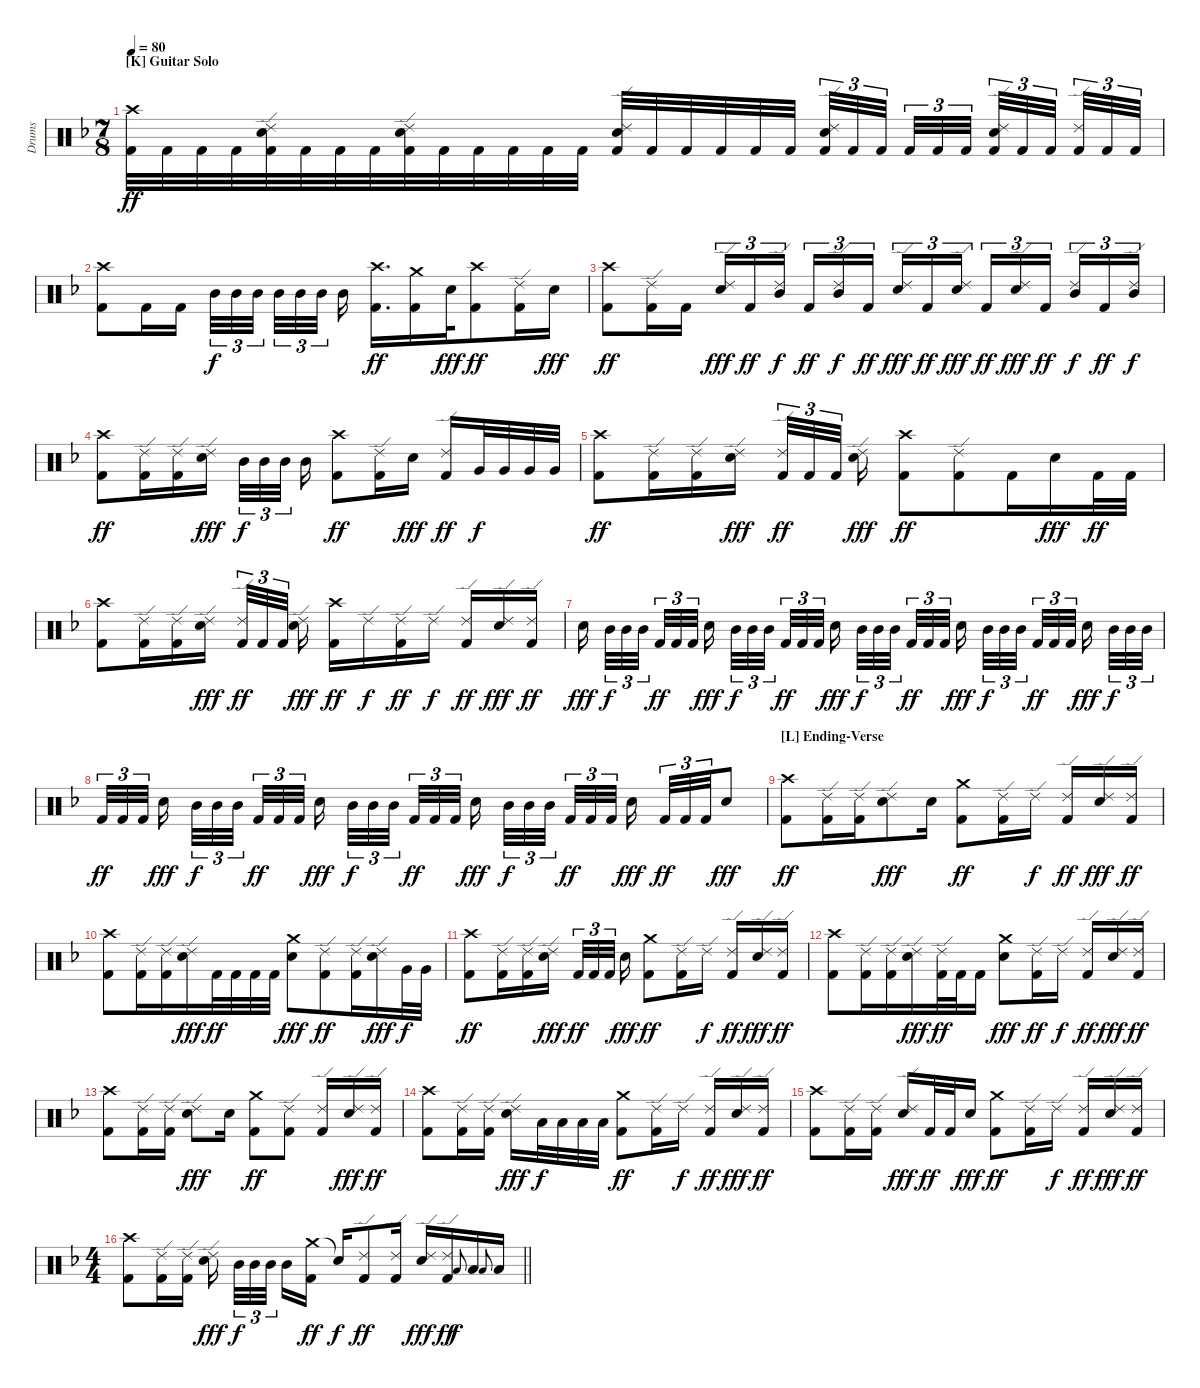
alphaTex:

\track ("Drums" "Drums") {instrument percussion}
\staff {score}
\articulation defaults
\ts (7 8)
\section ("" "[K] Guitar Solo")
\tempo 80
\clef neutral
\ks dminor
("Crash high (hit)" "Kick (hit) 2").32{dy ff} "Kick (hit) 2".32 "Kick (hit) 2".32 "Kick (hit) 2".32{beam merge} ("Ride (edge) 2" "Electric Snare (hit)" "Kick (hit) 2").32 "Kick (hit) 2".32 "Kick (hit) 2".32 "Kick (hit) 2".32 ("Ride (edge) 2" "Electric Snare (hit)" "Kick (hit) 2").32 "Kick (hit) 2".32 "Kick (hit) 2".32 "Kick (hit) 2".32{beam merge} "Kick (hit) 2".32 "Kick (hit) 2".32{beam split} ("Ride (edge) 2" "Electric Snare (hit)" "Kick (hit) 2").32 "Kick (hit) 2".32{beam merge} "Kick (hit) 2".32 "Kick (hit) 2".32 "Kick (hit) 2".32 "Kick (hit) 2".32 ("Ride (edge) 2" "Electric Snare (hit)" "Kick (hit) 2").32{tu (3 2)} "Kick (hit) 2".32{tu (3 2)} "Kick (hit) 2".32{tu (3 2) beam splitsecondary} "Kick (hit) 2".32{tu (3 2)} "Kick (hit) 2".32{tu (3 2)} "Kick (hit) 2".32{tu (3 2)} ("Ride (edge) 2" "Electric Snare (hit)" "Kick (hit) 2").32{tu (3 2)} "Kick (hit) 2".32{tu (3 2)} "Kick (hit) 2".32{tu (3 2) beam splitsecondary} ("Ride (edge) 2" "Kick (hit) 2").32{tu (3 2)} "Kick (hit) 2".32{tu (3 2)} "Kick (hit) 2".32{tu (3 2)} |
("Crash high (hit)" "Kick (hit) 2").8{beam merge} "Kick (hit) 2".16 "Kick (hit) 2".16 "Mid Tom (hit)".32{tu (3 2) dy f} "Mid Tom (hit)".32{tu (3 2)} "Mid Tom (hit)".32{tu (3 2) beam splitsecondary} "Mid Tom (hit)".32{tu (3 2)} "Mid Tom (hit)".32{tu (3 2)} "Mid Tom (hit)".32{tu (3 2) beam splitsecondary} "Mid Tom (hit)".16{beam split} ("Crash high (hit)" "Kick (hit) 2").16{d dy ff beam merge} ("Crash medium (hit)" "Kick (hit) 2").16 "Electric Snare (hit)".32{dy fff beam merge} ("Crash high (hit)" "Kick (hit) 2").8{dy ff beam merge} ("Ride (edge) 2" "Kick (hit) 2").16 "Electric Snare (hit)".16{dy fff} |
("Crash high (hit)" "Kick (hit) 2").8{dy ff beam merge} ("Ride (edge) 2" "Kick (hit) 2").16 "Kick (hit) 2".16 ("Ride (edge) 2" "Electric Snare (hit)").16{tu (3 2) dy fff} "Kick (hit) 2".16{tu (3 2) dy ff} ("Ride (edge) 2" "Mid Tom (hit)").16{tu (3 2) dy f} "Kick (hit) 2".16{tu (3 2) dy ff} ("Ride (edge) 2" "Mid Tom (hit)").16{tu (3 2) dy f} "Kick (hit) 2".16{tu (3 2) dy ff} ("Ride (edge) 2" "Electric Snare (hit)").16{tu (3 2) dy fff} "Kick (hit) 2".16{tu (3 2) dy ff} ("Ride (edge) 2" "Electric Snare (hit)").16{tu (3 2) dy fff} "Kick (hit) 2".16{tu (3 2) dy ff} ("Ride (edge) 2" "Electric Snare (hit)").16{tu (3 2) dy fff} "Kick (hit) 2".16{tu (3 2) dy ff} ("Ride (edge) 2" "Mid Tom (hit)").16{tu (3 2) dy f} "Kick (hit) 2".16{tu (3 2) dy ff} ("Ride (edge) 2" "Mid Tom (hit)").16{tu (3 2) dy f} |
("Crash high (hit)" "Kick (hit) 2").8{dy ff beam merge} ("Ride (edge) 2" "Kick (hit) 2").16 ("Ride (edge) 2" "Kick (hit) 2").16 ("Ride (edge) 2" "Electric Snare (hit)").16{dy fff beam splitsecondary} "Mid Tom (hit)".32{tu (3 2) dy f} "Mid Tom (hit)".32{tu (3 2)} "Mid Tom (hit)".32{tu (3 2) beam splitsecondary} "Mid Tom (hit)".16{beam split} ("Crash high (hit)" "Kick (hit) 2").8{dy ff beam merge} ("Ride (edge) 2" "Kick (hit) 2").16{beam merge} "Electric Snare (hit)".16{dy fff beam split} ("Ride (edge) 2" "Kick (hit) 2").16{dy ff beam merge} "Very Low Tom (hit)".32{dy f} "Very Low Tom (hit)".32 "Very Low Tom (hit)".32 "Very Low Tom (hit)".32 |
("Crash high (hit)" "Kick (hit) 2").8{dy ff beam merge} ("Ride (edge) 2" "Kick (hit) 2").16 ("Ride (edge) 2" "Kick (hit) 2").16 ("Ride (edge) 2" "Electric Snare (hit)").16{dy fff beam splitsecondary} ("Ride (edge) 2" "Kick (hit) 2").32{tu (3 2) dy ff} "Kick (hit) 2".32{tu (3 2)} "Kick (hit) 2".32{tu (3 2) beam splitsecondary} ("Ride (edge) 2" "Electric Snare (hit)").16{dy fff beam split} ("Crash high (hit)" "Kick (hit) 2").8{dy ff beam merge} ("Ride (edge) 2" "Kick (hit) 2").8 "Kick (hit) 2".16{beam merge} "Electric Snare (hit)".16{dy fff} "Kick (hit) 2".32{dy ff} "Kick (hit) 2".32 |
("Crash high (hit)" "Kick (hit) 2").8{beam merge} ("Ride (edge) 2" "Kick (hit) 2").16 ("Ride (edge) 2" "Kick (hit) 2").16 ("Ride (edge) 2" "Electric Snare (hit)").16{dy fff beam splitsecondary} ("Ride (edge) 2" "Kick (hit) 2").32{tu (3 2) dy ff} "Kick (hit) 2".32{tu (3 2)} "Kick (hit) 2".32{tu (3 2) beam splitsecondary} ("Ride (edge) 2" "Electric Snare (hit)").16{dy fff beam split} ("Crash high (hit)" "Kick (hit) 2").16{dy ff beam merge} "Ride (edge) 2".16{dy f} ("Ride (edge) 2" "Kick (hit) 2").16{dy ff beam merge} "Ride (edge) 2".16{dy f beam split} ("Ride (edge) 2" "Kick (hit) 2").16{dy ff beam merge} ("Ride (edge) 2" "Electric Snare (hit)").16{dy fff} ("Ride (edge) 2" "Kick (hit) 2").16{dy ff} |
"Electric Snare (hit)".16{dy fff beam splitsecondary} "Mid Tom (hit)".32{tu (3 2) dy f} "Mid Tom (hit)".32{tu (3 2)} "Mid Tom (hit)".32{tu (3 2) beam splitsecondary} "Kick (hit) 2".32{tu (3 2) dy ff} "Kick (hit) 2".32{tu (3 2)} "Kick (hit) 2".32{tu (3 2) beam split} "Electric Snare (hit)".16{dy fff beam splitsecondary} "Mid Tom (hit)".32{tu (3 2) dy f} "Mid Tom (hit)".32{tu (3 2)} "Mid Tom (hit)".32{tu (3 2) beam splitsecondary} "Kick (hit) 2".32{tu (3 2) dy ff} "Kick (hit) 2".32{tu (3 2)} "Kick (hit) 2".32{tu (3 2)} "Electric Snare (hit)".16{dy fff beam splitsecondary} "Mid Tom (hit)".32{tu (3 2) dy f} "Mid Tom (hit)".32{tu (3 2)} "Mid Tom (hit)".32{tu (3 2) beam splitsecondary} "Kick (hit) 2".32{tu (3 2) dy ff} "Kick (hit) 2".32{tu (3 2)} "Kick (hit) 2".32{tu (3 2) beam split} "Electric Snare (hit)".16{dy fff beam splitsecondary} "Mid Tom (hit)".32{tu (3 2) dy f} "Mid Tom (hit)".32{tu (3 2)} "Mid Tom (hit)".32{tu (3 2) beam splitsecondary} "Kick (hit) 2".32{tu (3 2) dy ff} "Kick (hit) 2".32{tu (3 2)} "Kick (hit) 2".32{tu (3 2)} "Electric Snare (hit)".16{dy fff beam splitsecondary} "Mid Tom (hit)".32{tu (3 2) dy f} "Mid Tom (hit)".32{tu (3 2)} "Mid Tom (hit)".32{tu (3 2)} |
"Kick (hit) 2".32{tu (3 2) dy ff} "Kick (hit) 2".32{tu (3 2)} "Kick (hit) 2".32{tu (3 2) beam split} "Electric Snare (hit)".16{dy fff beam splitsecondary} "Mid Tom (hit)".32{tu (3 2) dy f} "Mid Tom (hit)".32{tu (3 2)} "Mid Tom (hit)".32{tu (3 2) beam splitsecondary} "Kick (hit) 2".32{tu (3 2) dy ff} "Kick (hit) 2".32{tu (3 2)} "Kick (hit) 2".32{tu (3 2)} "Electric Snare (hit)".16{dy fff beam splitsecondary} "Mid Tom (hit)".32{tu (3 2) dy f} "Mid Tom (hit)".32{tu (3 2)} "Mid Tom (hit)".32{tu (3 2) beam splitsecondary} "Kick (hit) 2".32{tu (3 2) dy ff} "Kick (hit) 2".32{tu (3 2)} "Kick (hit) 2".32{tu (3 2) beam split} "Electric Snare (hit)".16{dy fff beam splitsecondary} "Mid Tom (hit)".32{tu (3 2) dy f} "Mid Tom (hit)".32{tu (3 2)} "Mid Tom (hit)".32{tu (3 2) beam splitsecondary} "Kick (hit) 2".32{tu (3 2) dy ff} "Kick (hit) 2".32{tu (3 2)} "Kick (hit) 2".32{tu (3 2)} "Electric Snare (hit)".16{dy fff beam splitsecondary} "Kick (hit) 2".32{tu (3 2) dy ff} "Kick (hit) 2".32{tu (3 2)} "Kick (hit) 2".32{tu (3 2) beam merge} "Electric Snare (hit)".8{dy fff} |
\section ("" "[L] Ending-Verse")
("Crash high (hit)" "Kick (hit) 2").8{dy ff beam merge} ("Ride (edge) 2" "Kick (hit) 2").16 ("Ride (edge) 2" "Kick (hit) 2").16 ("Ride (edge) 2" "Electric Snare (hit)").8{dy fff beam merge} "Electric Snare (hit)".16{beam split} ("Crash medium (hit)" "Kick (hit) 2").8{dy ff beam merge} ("Ride (edge) 2" "Kick (hit) 2").16{beam merge} "Ride (edge) 2".16{dy f beam split} ("Ride (edge) 2" "Kick (hit) 2").16{dy ff beam merge} ("Ride (edge) 2" "Electric Snare (hit)").16{dy fff} ("Ride (edge) 2" "Kick (hit) 2").16{dy ff} |
("Crash high (hit)" "Kick (hit) 2").8{beam merge} ("Ride (edge) 2" "Kick (hit) 2").16 ("Ride (edge) 2" "Kick (hit) 2").16 ("Ride (edge) 2" "Electric Snare (hit)").16{dy fff} "Kick (hit) 2".32{dy ff} "Kick (hit) 2".32{beam merge} "Kick (hit) 2".32 "Kick (hit) 2".32{beam split} ("Crash medium (hit)" "Electric Snare (hit)").8{dy fff beam merge} ("Ride (edge) 2" "Kick (hit) 2").8{dy ff} ("Ride (edge) 2" "Kick (hit) 2").16{beam merge} ("Ride (edge) 2" "Electric Snare (hit)").16{dy fff} "Very Low Tom (hit)".32{dy f} "Very Low Tom (hit)".32 |
("Crash high (hit)" "Kick (hit) 2").8{dy ff beam merge} ("Ride (edge) 2" "Kick (hit) 2").16 ("Ride (edge) 2" "Kick (hit) 2").16 ("Ride (edge) 2" "Electric Snare (hit)").16{dy fff beam splitsecondary} "Kick (hit) 2".32{tu (3 2) dy ff} "Kick (hit) 2".32{tu (3 2)} "Kick (hit) 2".32{tu (3 2) beam splitsecondary} "Electric Snare (hit)".16{dy fff beam split} ("Crash medium (hit)" "Kick (hit) 2").8{dy ff beam merge} ("Ride (edge) 2" "Kick (hit) 2").16{beam merge} "Ride (edge) 2".16{dy f beam split} ("Ride (edge) 2" "Kick (hit) 2").16{dy ff beam merge} ("Ride (edge) 2" "Electric Snare (hit)").16{dy fff} ("Ride (edge) 2" "Kick (hit) 2").16{dy ff} |
("Crash high (hit)" "Kick (hit) 2").8{beam merge} ("Ride (edge) 2" "Kick (hit) 2").16 ("Ride (edge) 2" "Kick (hit) 2").16 ("Ride (edge) 2" "Electric Snare (hit)").16{dy fff} ("Ride (edge) 2" "Kick (hit) 2").32{dy ff} "Kick (hit) 2".32{beam merge} "Kick (hit) 2".16{beam split} ("Crash medium (hit)" "Electric Snare (hit)").8{dy fff beam merge} ("Ride (edge) 2" "Kick (hit) 2").16{dy ff beam merge} "Ride (edge) 2".16{dy f beam split} ("Ride (edge) 2" "Kick (hit) 2").16{dy ff beam merge} ("Ride (edge) 2" "Electric Snare (hit)").16{dy fff} ("Ride (edge) 2" "Kick (hit) 2").16{dy ff} |
("Crash high (hit)" "Kick (hit) 2").8{beam merge} ("Ride (edge) 2" "Kick (hit) 2").16 ("Ride (edge) 2" "Kick (hit) 2").16{beam split} ("Ride (edge) 2" "Electric Snare (hit)").8{dy fff beam merge} "Electric Snare (hit)".16{beam split} ("Crash medium (hit)" "Kick (hit) 2").8{dy ff beam merge} ("Ride (edge) 2" "Kick (hit) 2").8{beam split} ("Ride (edge) 2" "Kick (hit) 2").16{beam merge} ("Ride (edge) 2" "Electric Snare (hit)").16{dy fff} ("Ride (edge) 2" "Kick (hit) 2").16{dy ff} |
("Crash high (hit)" "Kick (hit) 2").8{beam merge} ("Ride (edge) 2" "Kick (hit) 2").16 ("Ride (edge) 2" "Kick (hit) 2").16{beam split} ("Ride (edge) 2" "Electric Snare (hit)").16{dy fff} "Low Floor Tom (hit)".32{dy f} "Low Floor Tom (hit)".32{beam merge} "Low Floor Tom (hit)".32 "Low Floor Tom (hit)".32{beam split} ("Crash medium (hit)" "Kick (hit) 2").8{dy ff beam merge} ("Ride (edge) 2" "Kick (hit) 2").16{beam merge} "Ride (edge) 2".16{dy f beam split} ("Ride (edge) 2" "Kick (hit) 2").16{dy ff beam merge} ("Ride (edge) 2" "Electric Snare (hit)").16{dy fff} ("Ride (edge) 2" "Kick (hit) 2").16{dy ff} |
("Crash high (hit)" "Kick (hit) 2").8{beam merge} ("Ride (edge) 2" "Kick (hit) 2").16 ("Ride (edge) 2" "Kick (hit) 2").16{beam split} ("Ride (edge) 2" "Electric Snare (hit)").16{dy fff} "Kick (hit) 2".32{dy ff} "Kick (hit) 2".32{beam merge} "Electric Snare (hit)".16{dy fff beam split} ("Crash medium (hit)" "Kick (hit) 2").8{dy ff beam merge} ("Ride (edge) 2" "Kick (hit) 2").16{beam merge} "Ride (edge) 2".16{dy f beam split} ("Ride (edge) 2" "Kick (hit) 2").16{dy ff beam merge} ("Ride (edge) 2" "Electric Snare (hit)").16{dy fff} ("Ride (edge) 2" "Kick (hit) 2").16{dy ff} |
\ts (4 4)
\barLineRight lightlight
("Crash high (hit)" "Kick (hit) 2").8 ("Ride (edge) 2" "Kick (hit) 2").16 ("Ride (edge) 2" "Kick (hit) 2").16 ("Ride (edge) 2" "Electric Snare (hit)").16{dy fff beam splitsecondary} "Mid Tom (hit)".32{tu (3 2) dy f} "Mid Tom (hit)".32{tu (3 2)} "Mid Tom (hit)".32{tu (3 2) beam splitsecondary} "Mid Tom (hit)".16 ("Crash medium (hit)" "Kick (hit) 2").16{dy ff} "Snare (hit)"{t}.16{dy f} ("Ride (edge) 2" "Kick (hit) 2").8{dy ff} ("Ride (edge) 2" "Kick (hit) 2").16 ("Ride (edge) 2" "Electric Snare (hit)").16{dy fff} ("Ride (edge) 2" "Kick (hit) 2").16{dy ff} "Low Floor Tom (hit)".8{gr onbeat dy f} "Low Floor Tom (hit)".16 "Low Floor Tom (hit)".8{gr onbeat} "Low Floor Tom (hit)".16
